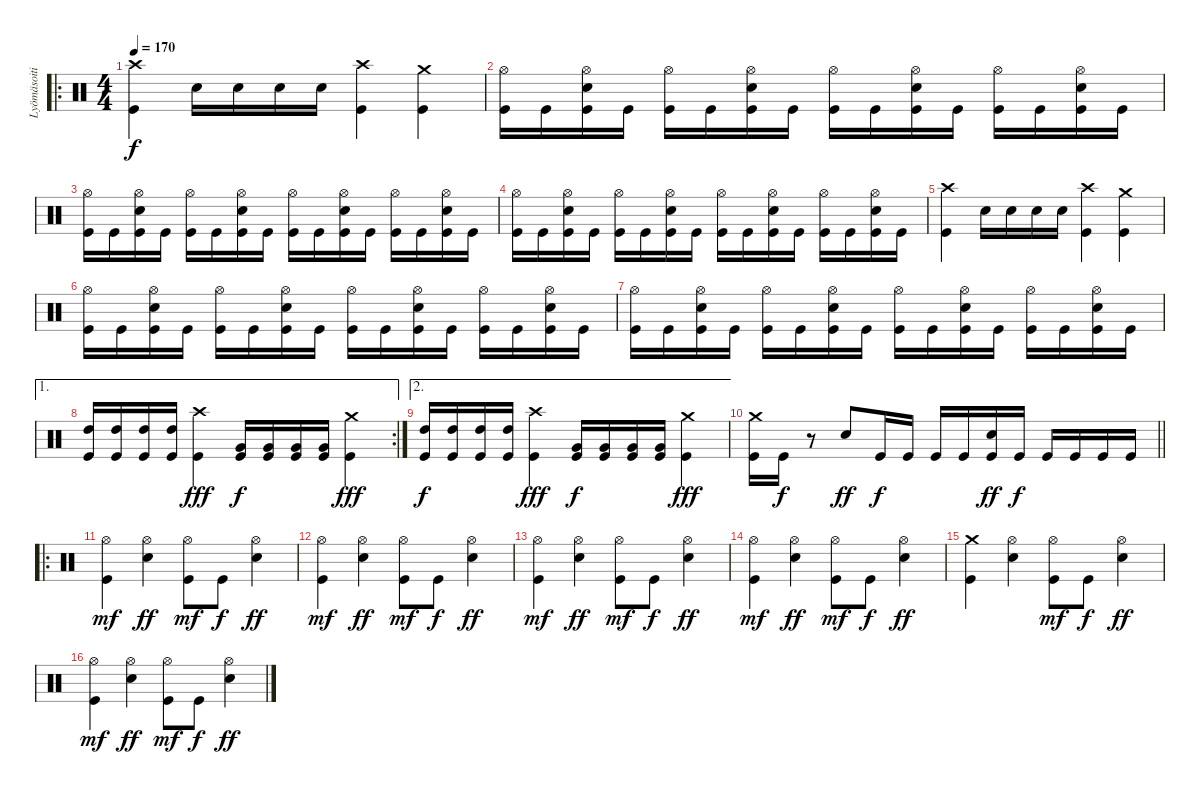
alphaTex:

\track ("Lyömäsoitin" "Lyömäsoiti") {instrument percussion}
\staff {score}
\articulation defaults
\ro
\ts (4 4)
\section ("" "")
\tempo 170
\clef neutral
\ks c
("Kick (hit)" "Crash high (hit)").4{dy f} "Electric Snare (hit)".16 "Electric Snare (hit)".16 "Electric Snare (hit)".16 "Electric Snare (hit)".16 ("Crash high (hit)" "Kick (hit)").4 ("Crash medium (hit)" "Kick (hit)").4 |
("Hi-Hat (open)" "Kick (hit)").16 "Kick (hit)".16 ("Hi-Hat (open)" "Electric Snare (hit)" "Kick (hit)").16 "Kick (hit)".16 ("Hi-Hat (open)" "Kick (hit)").16 "Kick (hit)".16 ("Hi-Hat (open)" "Electric Snare (hit)" "Kick (hit)").16 "Kick (hit)".16 ("Hi-Hat (open)" "Kick (hit)").16 "Kick (hit)".16 ("Hi-Hat (open)" "Electric Snare (hit)" "Kick (hit)").16 "Kick (hit)".16 ("Hi-Hat (open)" "Kick (hit)").16 "Kick (hit)".16 ("Hi-Hat (open)" "Electric Snare (hit)" "Kick (hit)").16 "Kick (hit)".16 |
("Hi-Hat (open)" "Kick (hit)").16 "Kick (hit)".16 ("Hi-Hat (open)" "Electric Snare (hit)" "Kick (hit)").16 "Kick (hit)".16 ("Hi-Hat (open)" "Kick (hit)").16 "Kick (hit)".16 ("Hi-Hat (open)" "Electric Snare (hit)" "Kick (hit)").16 "Kick (hit)".16 ("Hi-Hat (open)" "Kick (hit)").16 "Kick (hit)".16 ("Hi-Hat (open)" "Electric Snare (hit)" "Kick (hit)").16 "Kick (hit)".16 ("Hi-Hat (open)" "Kick (hit)").16 "Kick (hit)".16 ("Hi-Hat (open)" "Electric Snare (hit)" "Kick (hit)").16 "Kick (hit)".16 |
("Hi-Hat (open)" "Kick (hit)").16 "Kick (hit)".16 ("Hi-Hat (open)" "Electric Snare (hit)" "Kick (hit)").16 "Kick (hit)".16 ("Hi-Hat (open)" "Kick (hit)").16 "Kick (hit)".16 ("Hi-Hat (open)" "Electric Snare (hit)" "Kick (hit)").16 "Kick (hit)".16 ("Hi-Hat (open)" "Kick (hit)").16 "Kick (hit)".16 ("Hi-Hat (open)" "Electric Snare (hit)" "Kick (hit)").16 "Kick (hit)".16 ("Hi-Hat (open)" "Kick (hit)").16 "Kick (hit)".16 ("Hi-Hat (open)" "Electric Snare (hit)" "Kick (hit)").16 "Kick (hit)".16 |
("Kick (hit)" "Crash high (hit)").4 "Electric Snare (hit)".16 "Electric Snare (hit)".16 "Electric Snare (hit)".16 "Electric Snare (hit)".16 ("Crash high (hit)" "Kick (hit)").4 ("Crash medium (hit)" "Kick (hit)").4 |
("Hi-Hat (open)" "Kick (hit)").16 "Kick (hit)".16 ("Hi-Hat (open)" "Electric Snare (hit)" "Kick (hit)").16 "Kick (hit)".16 ("Hi-Hat (open)" "Kick (hit)").16 "Kick (hit)".16 ("Hi-Hat (open)" "Electric Snare (hit)" "Kick (hit)").16 "Kick (hit)".16 ("Hi-Hat (open)" "Kick (hit)").16 "Kick (hit)".16 ("Hi-Hat (open)" "Electric Snare (hit)" "Kick (hit)").16 "Kick (hit)".16 ("Hi-Hat (open)" "Kick (hit)").16 "Kick (hit)".16 ("Hi-Hat (open)" "Electric Snare (hit)" "Kick (hit)").16 "Kick (hit)".16 |
("Hi-Hat (open)" "Kick (hit)").16 "Kick (hit)".16 ("Hi-Hat (open)" "Electric Snare (hit)" "Kick (hit)").16 "Kick (hit)".16 ("Hi-Hat (open)" "Kick (hit)").16 "Kick (hit)".16 ("Hi-Hat (open)" "Electric Snare (hit)" "Kick (hit)").16 "Kick (hit)".16 ("Hi-Hat (open)" "Kick (hit)").16 "Kick (hit)".16 ("Hi-Hat (open)" "Electric Snare (hit)" "Kick (hit)").16 "Kick (hit)".16 ("Hi-Hat (open)" "Kick (hit)").16 "Kick (hit)".16 ("Hi-Hat (open)" "Electric Snare (hit)" "Kick (hit)").16 "Kick (hit)".16 |
\ae 1
\rc 2
("High Tom (hit)" "Kick (hit)").16 ("High Tom (hit)" "Kick (hit)").16 ("High Tom (hit)" "Kick (hit)").16 ("High Tom (hit)" "Kick (hit)").16 ("Crash high (hit)" "Kick (hit)").4{dy fff} ("Very Low Tom (hit)" "Kick (hit)").16{dy f} ("Very Low Tom (hit)" "Kick (hit)").16 ("Very Low Tom (hit)" "Kick (hit)").16 ("Very Low Tom (hit)" "Kick (hit)").16 ("Crash medium (hit)" "Kick (hit)").4{dy fff} |
\ae 2
("High Tom (hit)" "Kick (hit)").16{dy f} ("High Tom (hit)" "Kick (hit)").16 ("High Tom (hit)" "Kick (hit)").16 ("High Tom (hit)" "Kick (hit)").16 ("Crash high (hit)" "Kick (hit)").4{dy fff} ("Very Low Tom (hit)" "Kick (hit)").16{dy f} ("Very Low Tom (hit)" "Kick (hit)").16 ("Very Low Tom (hit)" "Kick (hit)").16 ("Very Low Tom (hit)" "Kick (hit)").16 ("Crash medium (hit)" "Kick (hit)").4{dy fff} |
\barLineRight lightlight
("Crash medium (hit)" "Kick (hit)").16 "Kick (hit)".16{dy f} r.8 "Electric Snare (hit)".8{dy ff} "Kick (hit)".16{dy f} "Kick (hit)".16 "Kick (hit)".16 "Kick (hit)".16 ("Electric Snare (hit)" "Kick (hit)").16{dy ff} "Kick (hit)".16{dy f} "Kick (hit)".16 "Kick (hit)".16 "Kick (hit)".16 "Kick (hit)".16 |
\ro
\section ("" "")
("Hi-Hat (open)" "Kick (hit)").4{dy mf} ("Hi-Hat (open)" "Electric Snare (hit)").4{dy ff} ("Hi-Hat (open)" "Kick (hit)").8{dy mf} "Kick (hit)".8{dy f} ("Hi-Hat (open)" "Electric Snare (hit)").4{dy ff} |
("Hi-Hat (open)" "Kick (hit)").4{dy mf} ("Hi-Hat (open)" "Electric Snare (hit)").4{dy ff} ("Hi-Hat (open)" "Kick (hit)").8{dy mf} "Kick (hit)".8{dy f} ("Hi-Hat (open)" "Electric Snare (hit)").4{dy ff} |
("Hi-Hat (open)" "Kick (hit)").4{dy mf} ("Hi-Hat (open)" "Electric Snare (hit)").4{dy ff} ("Hi-Hat (open)" "Kick (hit)").8{dy mf} "Kick (hit)".8{dy f} ("Hi-Hat (open)" "Electric Snare (hit)").4{dy ff} |
("Hi-Hat (open)" "Kick (hit)").4{dy mf} ("Hi-Hat (open)" "Electric Snare (hit)").4{dy ff} ("Hi-Hat (open)" "Kick (hit)").8{dy mf} "Kick (hit)".8{dy f} ("Hi-Hat (open)" "Electric Snare (hit)").4{dy ff} |
("Crash medium (hit)" "Kick (hit)").4 ("Hi-Hat (open)" "Electric Snare (hit)").4 ("Hi-Hat (open)" "Kick (hit)").8{dy mf} "Kick (hit)".8{dy f} ("Hi-Hat (open)" "Electric Snare (hit)").4{dy ff} |
("Hi-Hat (open)" "Kick (hit)").4{dy mf} ("Hi-Hat (open)" "Electric Snare (hit)").4{dy ff} ("Hi-Hat (open)" "Kick (hit)").8{dy mf} "Kick (hit)".8{dy f} ("Hi-Hat (open)" "Electric Snare (hit)").4{dy ff}
